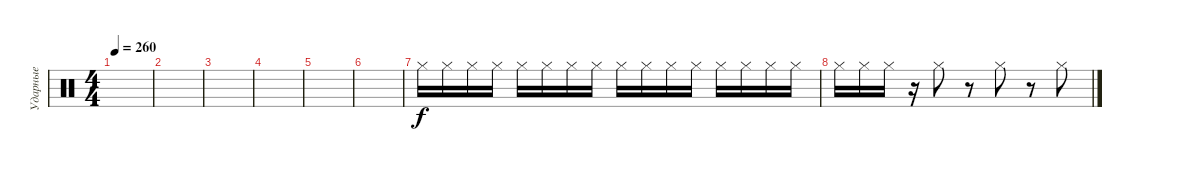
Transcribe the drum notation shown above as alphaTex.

\track ("Ударные" "Ударные") {instrument percussion}
\staff {score}
\articulation defaults
\ts (4 4)
\tempo 260
\clef neutral
\ks c
|
|
|
|
|
|
"Hi-Hat (closed)".16{volume 16} "Hi-Hat (closed)".16 "Hi-Hat (closed)".16 "Hi-Hat (closed)".16 "Hi-Hat (closed)".16 "Hi-Hat (closed)".16 "Hi-Hat (closed)".16 "Hi-Hat (closed)".16 "Hi-Hat (closed)".16 "Hi-Hat (closed)".16 "Hi-Hat (closed)".16 "Hi-Hat (closed)".16 "Hi-Hat (closed)".16 "Hi-Hat (closed)".16 "Hi-Hat (closed)".16 "Hi-Hat (closed)".16 |
"Hi-Hat (closed)".16 "Hi-Hat (closed)".16 "Hi-Hat (closed)".16 r.16 "Hi-Hat (closed)".8 r.8 "Hi-Hat (closed)".8 r.8 "Hi-Hat (closed)".8
